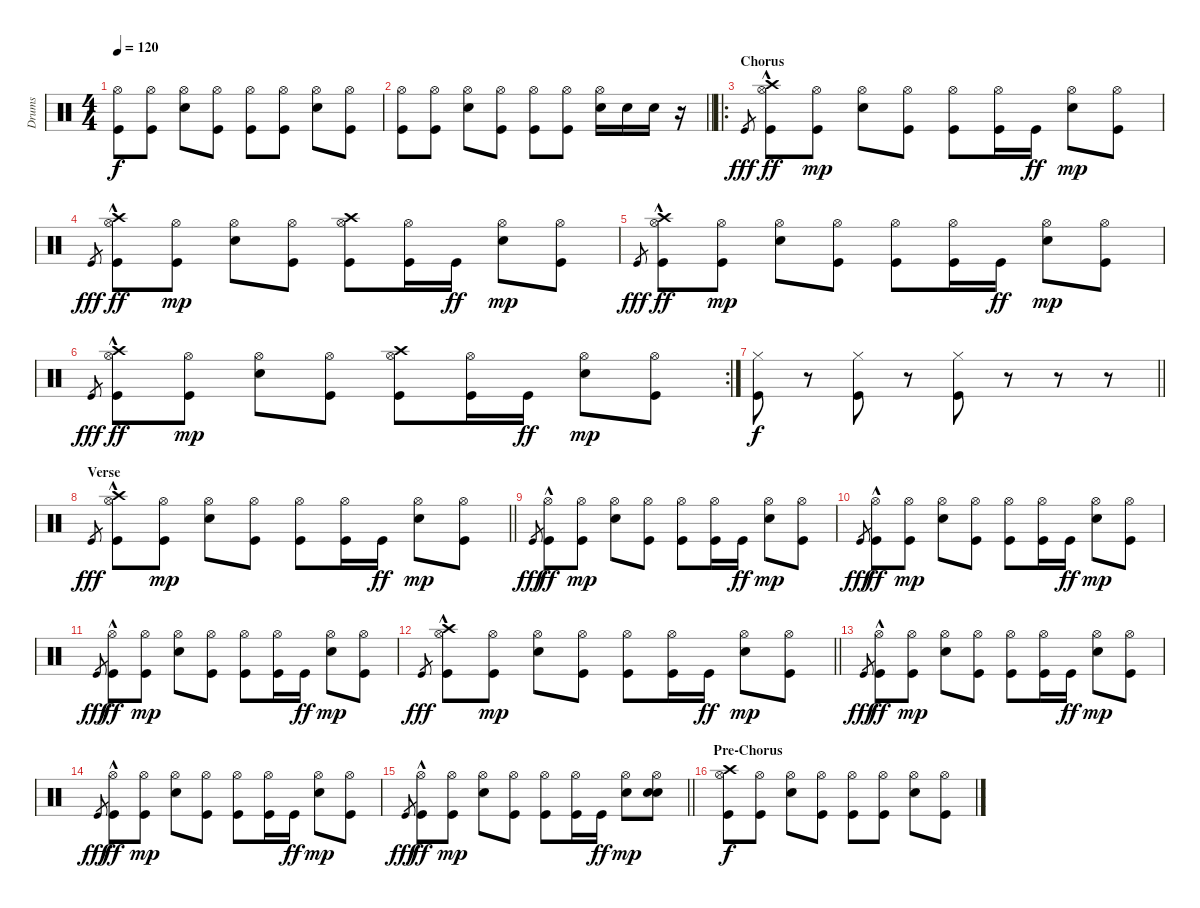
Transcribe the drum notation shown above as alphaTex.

\track ("Drums" "Drums") {instrument percussion}
\staff {score}
\articulation defaults
\ts (4 4)
\tempo 120
\clef neutral
\ks c
("Kick (hit)" "Hi-Hat (open)").8{dy f} ("Kick (hit)" "Hi-Hat (open)").8 ("Electric Snare (hit)" "Hi-Hat (open)").8 ("Kick (hit)" "Hi-Hat (open)").8 ("Kick (hit)" "Hi-Hat (open)").8 ("Kick (hit)" "Hi-Hat (open)").8 ("Electric Snare (hit)" "Hi-Hat (open)").8 ("Kick (hit)" "Hi-Hat (open)").8 |
\barLineRight lightlight
("Kick (hit)" "Hi-Hat (open)").8 ("Kick (hit)" "Hi-Hat (open)").8 ("Electric Snare (hit)" "Hi-Hat (open)").8 ("Kick (hit)" "Hi-Hat (open)").8 ("Kick (hit)" "Hi-Hat (open)").8 ("Kick (hit)" "Hi-Hat (open)").8 ("Electric Snare (hit)" "Hi-Hat (open)").16 "Electric Snare (hit)".16 "Electric Snare (hit)".16 r.16 |
\ro
\section ("" "Chorus")
"Kick (hit)".8{gr dy fff} ("Kick (hit)"{hac} "Hi-Hat (open)" "Crash high (hit)").8{dy ff} ("Kick (hit)" "Hi-Hat (open)").8{dy mp} ("Electric Snare (hit)" "Hi-Hat (open)").8 ("Kick (hit)" "Hi-Hat (open)").8 ("Kick (hit)" "Hi-Hat (open)").8 ("Kick (hit)" "Hi-Hat (open)").16 "Kick (hit)".16{dy ff} ("Electric Snare (hit)" "Hi-Hat (open)").8{dy mp} ("Kick (hit)" "Hi-Hat (open)").8 |
"Kick (hit)".8{gr dy fff} ("Kick (hit)"{hac} "Hi-Hat (open)" "Crash high (hit)").8{dy ff} ("Kick (hit)" "Hi-Hat (open)").8{dy mp} ("Electric Snare (hit)" "Hi-Hat (open)").8 ("Kick (hit)" "Hi-Hat (open)").8 ("Kick (hit)" "Hi-Hat (open)" "Crash high (hit)").8 ("Kick (hit)" "Hi-Hat (open)").16 "Kick (hit)".16{dy ff} ("Electric Snare (hit)" "Hi-Hat (open)").8{dy mp} ("Kick (hit)" "Hi-Hat (open)").8 |
"Kick (hit)".8{gr dy fff} ("Kick (hit)"{hac} "Hi-Hat (open)" "Crash high (hit)").8{dy ff} ("Kick (hit)" "Hi-Hat (open)").8{dy mp} ("Electric Snare (hit)" "Hi-Hat (open)").8 ("Kick (hit)" "Hi-Hat (open)").8 ("Kick (hit)" "Hi-Hat (open)").8 ("Kick (hit)" "Hi-Hat (open)").16 "Kick (hit)".16{dy ff} ("Electric Snare (hit)" "Hi-Hat (open)").8{dy mp} ("Kick (hit)" "Hi-Hat (open)").8 |
\rc 2 "Kick (hit)".8{gr dy fff}
("Kick (hit)"{hac} "Hi-Hat (open)" "Crash high (hit)").8{dy ff} ("Kick (hit)" "Hi-Hat (open)").8{dy mp} ("Electric Snare (hit)" "Hi-Hat (open)").8 ("Kick (hit)" "Hi-Hat (open)").8 ("Kick (hit)" "Hi-Hat (open)" "Crash high (hit)").8 ("Kick (hit)" "Hi-Hat (open)").16 "Kick (hit)".16{dy ff} ("Electric Snare (hit)" "Hi-Hat (open)").8{dy mp} ("Kick (hit)" "Hi-Hat (open)").8 |
\barLineRight lightlight
("Kick (hit)" "Hi-Hat (closed)").8{dy f} r.8 ("Kick (hit)" "Hi-Hat (closed)").8 r.8 ("Kick (hit)" "Hi-Hat (closed)").8 r.8 r.8 r.8 |
\section ("" "Verse")
\barLineRight lightlight "Kick (hit)".8{gr dy fff}
("Kick (hit)"{hac} "Hi-Hat (open)" "Crash high (hit)").8 ("Kick (hit)" "Hi-Hat (open)").8{dy mp} ("Electric Snare (hit)" "Hi-Hat (open)").8 ("Kick (hit)" "Hi-Hat (open)").8 ("Kick (hit)" "Hi-Hat (open)").8 ("Kick (hit)" "Hi-Hat (open)").16 "Kick (hit)".16{dy ff} ("Electric Snare (hit)" "Hi-Hat (open)").8{dy mp} ("Kick (hit)" "Hi-Hat (open)").8 |
"Kick (hit)".8{gr dy fff} ("Kick (hit)"{hac} "Hi-Hat (open)").8{dy ff} ("Kick (hit)" "Hi-Hat (open)").8{dy mp} ("Electric Snare (hit)" "Hi-Hat (open)").8 ("Kick (hit)" "Hi-Hat (open)").8 ("Kick (hit)" "Hi-Hat (open)").8 ("Kick (hit)" "Hi-Hat (open)").16 "Kick (hit)".16{dy ff} ("Electric Snare (hit)" "Hi-Hat (open)").8{dy mp} ("Kick (hit)" "Hi-Hat (open)").8 |
"Kick (hit)".8{gr dy fff} ("Kick (hit)"{hac} "Hi-Hat (open)").8{dy ff} ("Kick (hit)" "Hi-Hat (open)").8{dy mp} ("Electric Snare (hit)" "Hi-Hat (open)").8 ("Kick (hit)" "Hi-Hat (open)").8 ("Kick (hit)" "Hi-Hat (open)").8 ("Kick (hit)" "Hi-Hat (open)").16 "Kick (hit)".16{dy ff} ("Electric Snare (hit)" "Hi-Hat (open)").8{dy mp} ("Kick (hit)" "Hi-Hat (open)").8 |
"Kick (hit)".8{gr dy fff} ("Kick (hit)"{hac} "Hi-Hat (open)").8{dy ff} ("Kick (hit)" "Hi-Hat (open)").8{dy mp} ("Electric Snare (hit)" "Hi-Hat (open)").8 ("Kick (hit)" "Hi-Hat (open)").8 ("Kick (hit)" "Hi-Hat (open)").8 ("Kick (hit)" "Hi-Hat (open)").16 "Kick (hit)".16{dy ff} ("Electric Snare (hit)" "Hi-Hat (open)").8{dy mp} ("Kick (hit)" "Hi-Hat (open)").8 |
\barLineRight lightlight "Kick (hit)".8{gr dy fff}
("Kick (hit)"{hac} "Hi-Hat (open)" "Crash high (hit)").8 ("Kick (hit)" "Hi-Hat (open)").8{dy mp} ("Electric Snare (hit)" "Hi-Hat (open)").8 ("Kick (hit)" "Hi-Hat (open)").8 ("Kick (hit)" "Hi-Hat (open)").8 ("Kick (hit)" "Hi-Hat (open)").16 "Kick (hit)".16{dy ff} ("Electric Snare (hit)" "Hi-Hat (open)").8{dy mp} ("Kick (hit)" "Hi-Hat (open)").8 |
"Kick (hit)".8{gr dy fff} ("Kick (hit)"{hac} "Hi-Hat (open)").8{dy ff} ("Kick (hit)" "Hi-Hat (open)").8{dy mp} ("Electric Snare (hit)" "Hi-Hat (open)").8 ("Kick (hit)" "Hi-Hat (open)").8 ("Kick (hit)" "Hi-Hat (open)").8 ("Kick (hit)" "Hi-Hat (open)").16 "Kick (hit)".16{dy ff} ("Electric Snare (hit)" "Hi-Hat (open)").8{dy mp} ("Kick (hit)" "Hi-Hat (open)").8 |
"Kick (hit)".8{gr dy fff} ("Kick (hit)"{hac} "Hi-Hat (open)").8{dy ff} ("Kick (hit)" "Hi-Hat (open)").8{dy mp} ("Electric Snare (hit)" "Hi-Hat (open)").8 ("Kick (hit)" "Hi-Hat (open)").8 ("Kick (hit)" "Hi-Hat (open)").8 ("Kick (hit)" "Hi-Hat (open)").16 "Kick (hit)".16{dy ff} ("Electric Snare (hit)" "Hi-Hat (open)").8{dy mp} ("Kick (hit)" "Hi-Hat (open)").8 |
\barLineRight lightlight "Kick (hit)".8{gr dy fff}
("Kick (hit)"{hac} "Hi-Hat (open)").8{dy ff} ("Kick (hit)" "Hi-Hat (open)").8{dy mp} ("Electric Snare (hit)" "Hi-Hat (open)").8 ("Kick (hit)" "Hi-Hat (open)").8 ("Kick (hit)" "Hi-Hat (open)").8 ("Kick (hit)" "Hi-Hat (open)").16 "Kick (hit)".16{dy ff} ("Electric Snare (hit)" "Hi-Hat (open)").8{dy mp} ("Snare (hit) 2" "Electric Snare (hit)" "Hi-Hat (open)").8 |
\section ("" "Pre-Chorus")
("Kick (hit)" "Hi-Hat (open)" "Crash high (hit)").8{dy f} ("Kick (hit)" "Hi-Hat (open)").8 ("Electric Snare (hit)" "Hi-Hat (open)").8 ("Kick (hit)" "Hi-Hat (open)").8 ("Kick (hit)" "Hi-Hat (open)").8 ("Kick (hit)" "Hi-Hat (open)").8 ("Electric Snare (hit)" "Hi-Hat (open)").8 ("Kick (hit)" "Hi-Hat (open)").8
